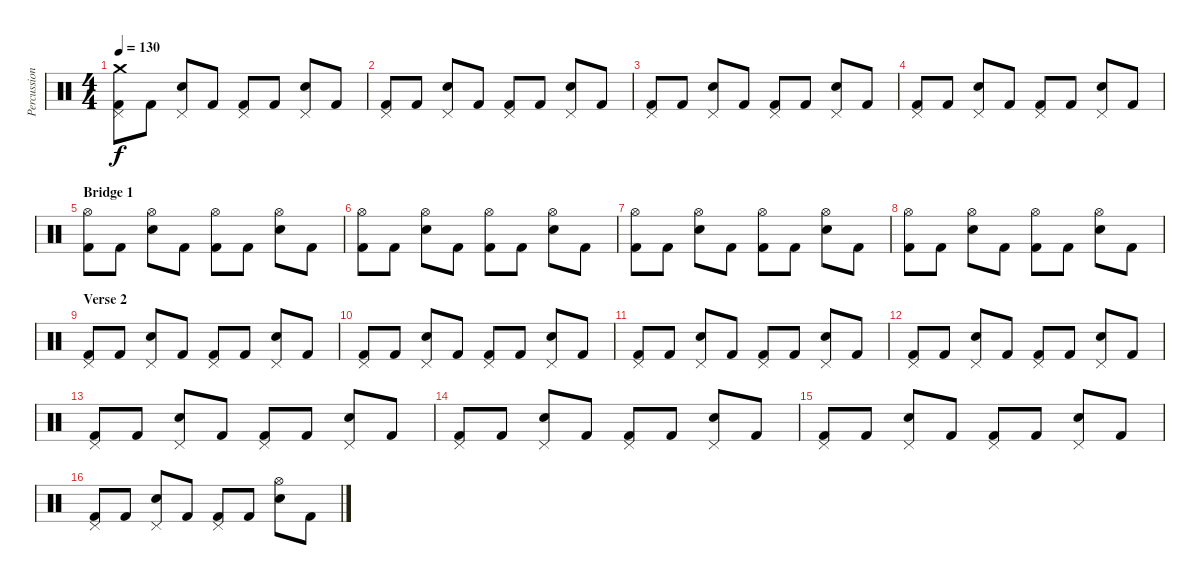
\track ("Percussions" "Percussion") {instrument percussion}
\staff {score}
\articulation defaults
\ts (4 4)
\tempo 130
\clef neutral
\ks c
("Crash medium (hit)" "Pedal Hi-Hat (hit)" "Kick (hit) 2").8{dy f} "Kick (hit) 2".8 ("Pedal Hi-Hat (hit)" "Snare (hit) 2").8 "Kick (hit) 2".8 ("Pedal Hi-Hat (hit)" "Kick (hit) 2").8 "Kick (hit) 2".8 ("Pedal Hi-Hat (hit)" "Snare (hit) 2").8 "Kick (hit) 2".8 |
("Pedal Hi-Hat (hit)" "Kick (hit) 2").8 "Kick (hit) 2".8 ("Pedal Hi-Hat (hit)" "Snare (hit) 2").8 "Kick (hit) 2".8 ("Pedal Hi-Hat (hit)" "Kick (hit) 2").8 "Kick (hit) 2".8 ("Pedal Hi-Hat (hit)" "Snare (hit) 2").8 "Kick (hit) 2".8 |
("Pedal Hi-Hat (hit)" "Kick (hit) 2").8 "Kick (hit) 2".8 ("Pedal Hi-Hat (hit)" "Snare (hit) 2").8 "Kick (hit) 2".8 ("Pedal Hi-Hat (hit)" "Kick (hit) 2").8 "Kick (hit) 2".8 ("Pedal Hi-Hat (hit)" "Snare (hit) 2").8 "Kick (hit) 2".8 |
("Pedal Hi-Hat (hit)" "Kick (hit) 2").8 "Kick (hit) 2".8 ("Pedal Hi-Hat (hit)" "Snare (hit) 2").8 "Kick (hit) 2".8 ("Pedal Hi-Hat (hit)" "Kick (hit) 2").8 "Kick (hit) 2".8 ("Pedal Hi-Hat (hit)" "Snare (hit) 2").8 "Kick (hit) 2".8 |
\section ("" "Bridge 1")
("Hi-Hat (open)" "Kick (hit) 2").8 "Kick (hit) 2".8 ("Hi-Hat (open)" "Snare (hit) 2").8 "Kick (hit) 2".8 ("Hi-Hat (open)" "Kick (hit) 2").8 "Kick (hit) 2".8 ("Hi-Hat (open)" "Snare (hit) 2").8 "Kick (hit) 2".8 |
("Hi-Hat (open)" "Kick (hit) 2").8 "Kick (hit) 2".8 ("Hi-Hat (open)" "Snare (hit) 2").8 "Kick (hit) 2".8 ("Hi-Hat (open)" "Kick (hit) 2").8 "Kick (hit) 2".8 ("Hi-Hat (open)" "Snare (hit) 2").8 "Kick (hit) 2".8 |
("Hi-Hat (open)" "Kick (hit) 2").8 "Kick (hit) 2".8 ("Hi-Hat (open)" "Snare (hit) 2").8 "Kick (hit) 2".8 ("Hi-Hat (open)" "Kick (hit) 2").8 "Kick (hit) 2".8 ("Hi-Hat (open)" "Snare (hit) 2").8 "Kick (hit) 2".8 |
("Hi-Hat (open)" "Kick (hit) 2").8 "Kick (hit) 2".8 ("Hi-Hat (open)" "Snare (hit) 2").8 "Kick (hit) 2".8 ("Hi-Hat (open)" "Kick (hit) 2").8 "Kick (hit) 2".8 ("Hi-Hat (open)" "Snare (hit) 2").8 "Kick (hit) 2".8 |
\section ("" "Verse 2")
("Pedal Hi-Hat (hit)" "Kick (hit) 2").8 "Kick (hit) 2".8 ("Pedal Hi-Hat (hit)" "Snare (hit) 2").8 "Kick (hit) 2".8 ("Pedal Hi-Hat (hit)" "Kick (hit) 2").8 "Kick (hit) 2".8 ("Pedal Hi-Hat (hit)" "Snare (hit) 2").8 "Kick (hit) 2".8 |
("Pedal Hi-Hat (hit)" "Kick (hit) 2").8 "Kick (hit) 2".8 ("Pedal Hi-Hat (hit)" "Snare (hit) 2").8 "Kick (hit) 2".8 ("Pedal Hi-Hat (hit)" "Kick (hit) 2").8 "Kick (hit) 2".8 ("Pedal Hi-Hat (hit)" "Snare (hit) 2").8 "Kick (hit) 2".8 |
("Pedal Hi-Hat (hit)" "Kick (hit) 2").8 "Kick (hit) 2".8 ("Pedal Hi-Hat (hit)" "Snare (hit) 2").8 "Kick (hit) 2".8 ("Pedal Hi-Hat (hit)" "Kick (hit) 2").8 "Kick (hit) 2".8 ("Pedal Hi-Hat (hit)" "Snare (hit) 2").8 "Kick (hit) 2".8 |
("Pedal Hi-Hat (hit)" "Kick (hit) 2").8 "Kick (hit) 2".8 ("Pedal Hi-Hat (hit)" "Snare (hit) 2").8 "Kick (hit) 2".8 ("Pedal Hi-Hat (hit)" "Kick (hit) 2").8 "Kick (hit) 2".8 ("Pedal Hi-Hat (hit)" "Snare (hit) 2").8 "Kick (hit) 2".8 |
("Pedal Hi-Hat (hit)" "Kick (hit) 2").8 "Kick (hit) 2".8 ("Pedal Hi-Hat (hit)" "Snare (hit) 2").8 "Kick (hit) 2".8 ("Pedal Hi-Hat (hit)" "Kick (hit) 2").8 "Kick (hit) 2".8 ("Pedal Hi-Hat (hit)" "Snare (hit) 2").8 "Kick (hit) 2".8 |
("Pedal Hi-Hat (hit)" "Kick (hit) 2").8 "Kick (hit) 2".8 ("Pedal Hi-Hat (hit)" "Snare (hit) 2").8 "Kick (hit) 2".8 ("Pedal Hi-Hat (hit)" "Kick (hit) 2").8 "Kick (hit) 2".8 ("Pedal Hi-Hat (hit)" "Snare (hit) 2").8 "Kick (hit) 2".8 |
("Pedal Hi-Hat (hit)" "Kick (hit) 2").8 "Kick (hit) 2".8 ("Pedal Hi-Hat (hit)" "Snare (hit) 2").8 "Kick (hit) 2".8 ("Pedal Hi-Hat (hit)" "Kick (hit) 2").8 "Kick (hit) 2".8 ("Pedal Hi-Hat (hit)" "Snare (hit) 2").8 "Kick (hit) 2".8 |
("Pedal Hi-Hat (hit)" "Kick (hit) 2").8 "Kick (hit) 2".8 ("Pedal Hi-Hat (hit)" "Snare (hit) 2").8 "Kick (hit) 2".8 ("Pedal Hi-Hat (hit)" "Kick (hit) 2").8 "Kick (hit) 2".8 ("Hi-Hat (open)" "Snare (hit) 2").8 "Kick (hit) 2".8
